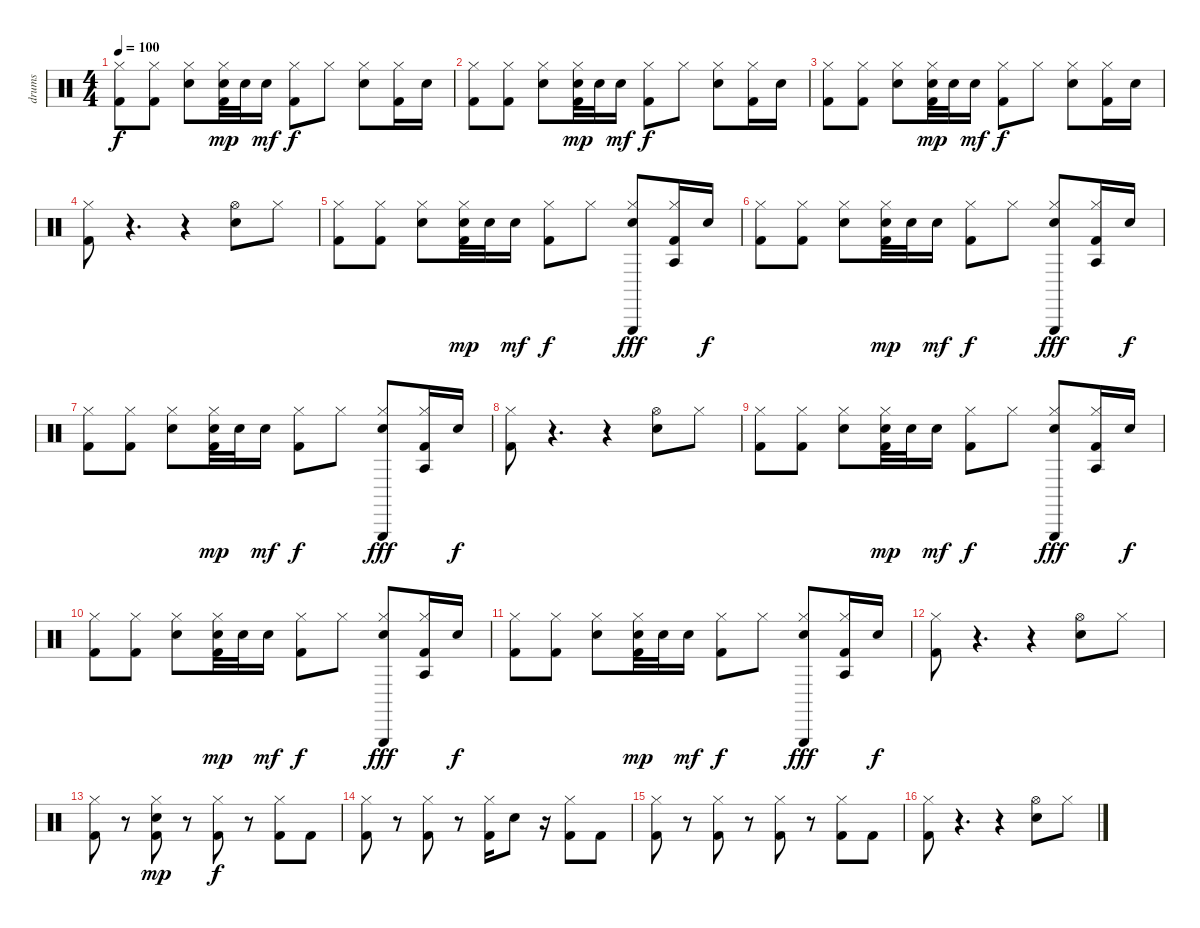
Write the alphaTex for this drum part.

\track ("drums" "drums") {instrument percussion}
\staff {score}
\articulation defaults
\ts (4 4)
\tempo 100
\clef neutral
\ks c
("Hi-Hat (closed)" "Kick (hit) 2").8{dy f} ("Hi-Hat (closed)" "Kick (hit) 2").8 ("Hi-Hat (closed)" "Electric Snare (hit)").8 ("Hi-Hat (closed)" "Electric Snare (hit)" "Kick (hit) 2").32{dy mp} "Electric Snare (hit)".32 "Electric Snare (hit)".16{dy mf} ("Hi-Hat (closed)" "Kick (hit) 2").8{dy f} "Hi-Hat (closed)".8 ("Hi-Hat (closed)" "Electric Snare (hit)").8 ("Hi-Hat (closed)" "Kick (hit) 2").16 "Electric Snare (hit)".16 |
("Hi-Hat (closed)" "Kick (hit) 2").8 ("Hi-Hat (closed)" "Kick (hit) 2").8 ("Hi-Hat (closed)" "Electric Snare (hit)").8 ("Hi-Hat (closed)" "Electric Snare (hit)" "Kick (hit) 2").32{dy mp} "Electric Snare (hit)".32 "Electric Snare (hit)".16{dy mf} ("Hi-Hat (closed)" "Kick (hit) 2").8{dy f} "Hi-Hat (closed)".8 ("Hi-Hat (closed)" "Electric Snare (hit)").8 ("Hi-Hat (closed)" "Kick (hit) 2").16 "Electric Snare (hit)".16 |
("Hi-Hat (closed)" "Kick (hit) 2").8 ("Hi-Hat (closed)" "Kick (hit) 2").8 ("Hi-Hat (closed)" "Electric Snare (hit)").8 ("Hi-Hat (closed)" "Electric Snare (hit)" "Kick (hit) 2").32{dy mp} "Electric Snare (hit)".32 "Electric Snare (hit)".16{dy mf} ("Hi-Hat (closed)" "Kick (hit) 2").8{dy f} "Hi-Hat (closed)".8 ("Hi-Hat (closed)" "Electric Snare (hit)").8 ("Hi-Hat (closed)" "Kick (hit) 2").16 "Electric Snare (hit)".16 |
("Hi-Hat (closed)" "Kick (hit) 2").8 r.4{d} r.4 ("Hi-Hat (open)" "Electric Snare (hit)").8 "Hi-Hat (closed)".8 |
("Hi-Hat (closed)" "Kick (hit) 2").8 ("Hi-Hat (closed)" "Kick (hit) 2").8 ("Hi-Hat (closed)" "Electric Snare (hit)").8 ("Hi-Hat (closed)" "Electric Snare (hit)" "Kick (hit) 2").32{dy mp} "Electric Snare (hit)".32 "Electric Snare (hit)".16{dy mf} ("Hi-Hat (closed)" "Kick (hit) 2").8{dy f} "Hi-Hat (closed)".8 ("Triangle (hit)" "Hi-Hat (closed)" "Electric Snare (hit)").8{dy fff} ("Agogo tow (hit)" "Hi-Hat (closed)" "Kick (hit) 2").16 "Electric Snare (hit)".16{dy f} |
("Hi-Hat (closed)" "Kick (hit) 2").8 ("Hi-Hat (closed)" "Kick (hit) 2").8 ("Hi-Hat (closed)" "Electric Snare (hit)").8 ("Hi-Hat (closed)" "Electric Snare (hit)" "Kick (hit) 2").32{dy mp} "Electric Snare (hit)".32 "Electric Snare (hit)".16{dy mf} ("Hi-Hat (closed)" "Kick (hit) 2").8{dy f} "Hi-Hat (closed)".8 ("Triangle (hit)" "Hi-Hat (closed)" "Electric Snare (hit)").8{dy fff} ("Agogo tow (hit)" "Hi-Hat (closed)" "Kick (hit) 2").16 "Electric Snare (hit)".16{dy f} |
("Hi-Hat (closed)" "Kick (hit) 2").8 ("Hi-Hat (closed)" "Kick (hit) 2").8 ("Hi-Hat (closed)" "Electric Snare (hit)").8 ("Hi-Hat (closed)" "Electric Snare (hit)" "Kick (hit) 2").32{dy mp} "Electric Snare (hit)".32 "Electric Snare (hit)".16{dy mf} ("Hi-Hat (closed)" "Kick (hit) 2").8{dy f} "Hi-Hat (closed)".8 ("Triangle (hit)" "Hi-Hat (closed)" "Electric Snare (hit)").8{dy fff} ("Agogo tow (hit)" "Hi-Hat (closed)" "Kick (hit) 2").16 "Electric Snare (hit)".16{dy f} |
("Hi-Hat (closed)" "Kick (hit) 2").8 r.4{d} r.4 ("Hi-Hat (open)" "Electric Snare (hit)").8 "Hi-Hat (closed)".8 |
("Hi-Hat (closed)" "Kick (hit) 2").8 ("Hi-Hat (closed)" "Kick (hit) 2").8 ("Hi-Hat (closed)" "Electric Snare (hit)").8 ("Hi-Hat (closed)" "Electric Snare (hit)" "Kick (hit) 2").32{dy mp} "Electric Snare (hit)".32 "Electric Snare (hit)".16{dy mf} ("Hi-Hat (closed)" "Kick (hit) 2").8{dy f} "Hi-Hat (closed)".8 ("Triangle (hit)" "Hi-Hat (closed)" "Electric Snare (hit)").8{dy fff} ("Agogo tow (hit)" "Hi-Hat (closed)" "Kick (hit) 2").16 "Electric Snare (hit)".16{dy f} |
("Hi-Hat (closed)" "Kick (hit) 2").8 ("Hi-Hat (closed)" "Kick (hit) 2").8 ("Hi-Hat (closed)" "Electric Snare (hit)").8 ("Hi-Hat (closed)" "Electric Snare (hit)" "Kick (hit) 2").32{dy mp} "Electric Snare (hit)".32 "Electric Snare (hit)".16{dy mf} ("Hi-Hat (closed)" "Kick (hit) 2").8{dy f} "Hi-Hat (closed)".8 ("Triangle (hit)" "Hi-Hat (closed)" "Electric Snare (hit)").8{dy fff} ("Agogo tow (hit)" "Hi-Hat (closed)" "Kick (hit) 2").16 "Electric Snare (hit)".16{dy f} |
("Hi-Hat (closed)" "Kick (hit) 2").8 ("Hi-Hat (closed)" "Kick (hit) 2").8 ("Hi-Hat (closed)" "Electric Snare (hit)").8 ("Hi-Hat (closed)" "Electric Snare (hit)" "Kick (hit) 2").32{dy mp} "Electric Snare (hit)".32 "Electric Snare (hit)".16{dy mf} ("Hi-Hat (closed)" "Kick (hit) 2").8{dy f} "Hi-Hat (closed)".8 ("Triangle (hit)" "Hi-Hat (closed)" "Electric Snare (hit)").8{dy fff} ("Agogo tow (hit)" "Hi-Hat (closed)" "Kick (hit) 2").16 "Electric Snare (hit)".16{dy f} |
("Hi-Hat (closed)" "Kick (hit) 2").8 r.4{d} r.4 ("Hi-Hat (open)" "Electric Snare (hit)").8 "Hi-Hat (closed)".8 |
("Hi-Hat (closed)" "Kick (hit) 2").8 r.8 ("Hi-Hat (closed)" "Electric Snare (hit)" "Kick (hit) 2").8{dy mp} r.8 ("Hi-Hat (closed)" "Kick (hit) 2").8{dy f} r.8 ("Hi-Hat (closed)" "Kick (hit) 2").8 "Kick (hit) 2".8 |
("Hi-Hat (closed)" "Kick (hit) 2").8 r.8 ("Hi-Hat (closed)" "Kick (hit) 2").8 r.8 ("Hi-Hat (closed)" "Kick (hit) 2").16 "Electric Snare (hit)".8 r.16 ("Hi-Hat (closed)" "Kick (hit) 2").8 "Kick (hit) 2".8 |
("Hi-Hat (closed)" "Kick (hit) 2").8 r.8 ("Hi-Hat (closed)" "Kick (hit) 2").8 r.8 ("Hi-Hat (closed)" "Kick (hit) 2").8 r.8 ("Hi-Hat (closed)" "Kick (hit) 2").8 "Kick (hit) 2".8 |
("Hi-Hat (closed)" "Kick (hit) 2").8 r.4{d} r.4 ("Hi-Hat (open)" "Electric Snare (hit)").8 "Hi-Hat (closed)".8
